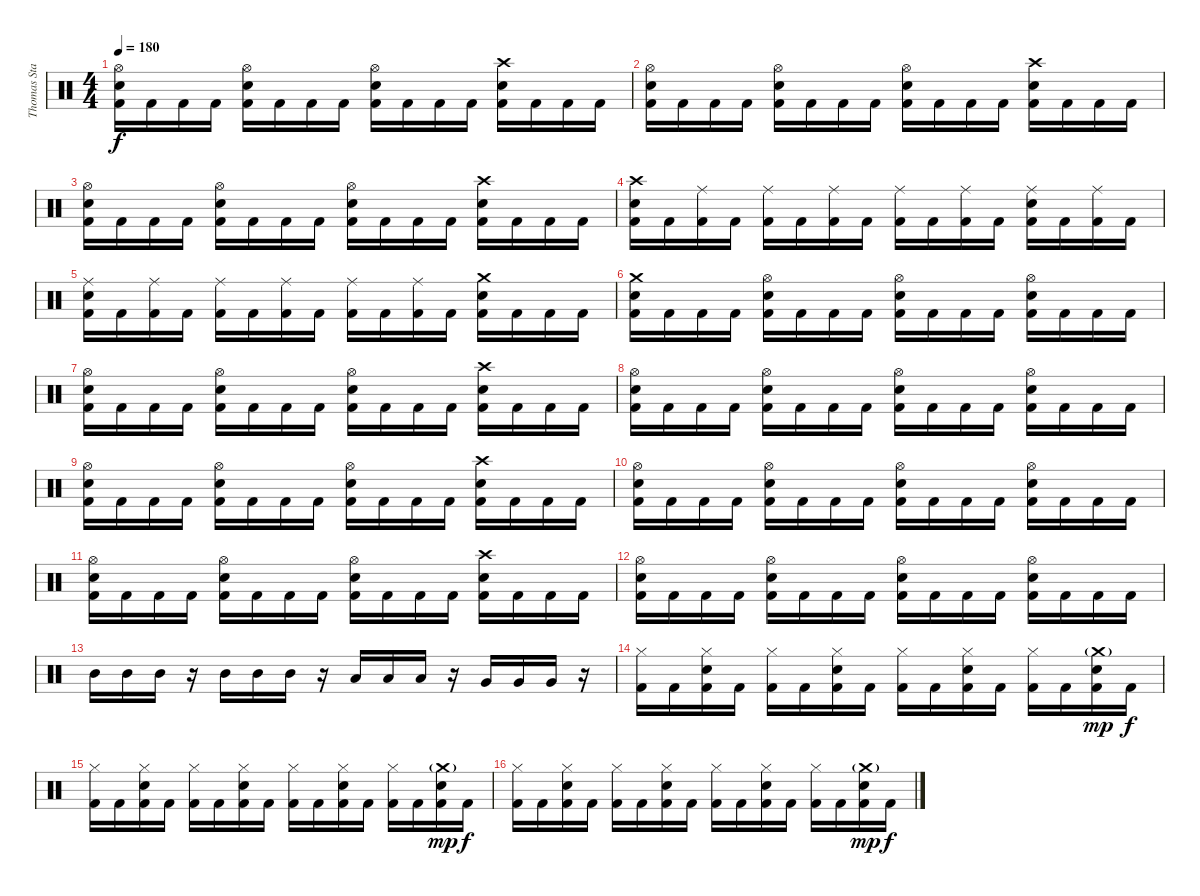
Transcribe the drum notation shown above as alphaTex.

\track ("Thomas Stauch" "Thomas Sta") {instrument percussion}
\staff {score}
\articulation defaults
\ts (4 4)
\tempo 180
\clef neutral
\ks c
("Hi-Hat (open)" "Electric Snare (hit)" "Kick (hit) 2").16{dy f} "Kick (hit) 2".16 "Kick (hit) 2".16 "Kick (hit) 2".16 ("Hi-Hat (open)" "Electric Snare (hit)" "Kick (hit) 2").16 "Kick (hit) 2".16 "Kick (hit) 2".16 "Kick (hit) 2".16 ("Hi-Hat (open)" "Electric Snare (hit)" "Kick (hit) 2").16 "Kick (hit) 2".16 "Kick (hit) 2".16 "Kick (hit) 2".16 ("Crash high (hit)" "Electric Snare (hit)" "Kick (hit) 2").16 "Kick (hit) 2".16 "Kick (hit) 2".16 "Kick (hit) 2".16 |
("Hi-Hat (open)" "Electric Snare (hit)" "Kick (hit) 2").16 "Kick (hit) 2".16 "Kick (hit) 2".16 "Kick (hit) 2".16 ("Hi-Hat (open)" "Electric Snare (hit)" "Kick (hit) 2").16 "Kick (hit) 2".16 "Kick (hit) 2".16 "Kick (hit) 2".16 ("Hi-Hat (open)" "Electric Snare (hit)" "Kick (hit) 2").16 "Kick (hit) 2".16 "Kick (hit) 2".16 "Kick (hit) 2".16 ("Crash high (hit)" "Electric Snare (hit)" "Kick (hit) 2").16 "Kick (hit) 2".16 "Kick (hit) 2".16 "Kick (hit) 2".16 |
("Hi-Hat (open)" "Electric Snare (hit)" "Kick (hit) 2").16 "Kick (hit) 2".16 "Kick (hit) 2".16 "Kick (hit) 2".16 ("Hi-Hat (open)" "Electric Snare (hit)" "Kick (hit) 2").16 "Kick (hit) 2".16 "Kick (hit) 2".16 "Kick (hit) 2".16 ("Hi-Hat (open)" "Electric Snare (hit)" "Kick (hit) 2").16 "Kick (hit) 2".16 "Kick (hit) 2".16 "Kick (hit) 2".16 ("Crash high (hit)" "Electric Snare (hit)" "Kick (hit) 2").16 "Kick (hit) 2".16 "Kick (hit) 2".16 "Kick (hit) 2".16 |
("Crash high (hit)" "Electric Snare (hit)" "Kick (hit) 2").16 "Kick (hit) 2".16 ("Ride (middle)" "Kick (hit) 2").16 "Kick (hit) 2".16 ("Ride (middle)" "Kick (hit) 2").16 "Kick (hit) 2".16 ("Ride (middle)" "Kick (hit) 2").16 "Kick (hit) 2".16 ("Ride (middle)" "Kick (hit) 2").16 "Kick (hit) 2".16 ("Ride (middle)" "Kick (hit) 2").16 "Kick (hit) 2".16 ("Ride (middle)" "Electric Snare (hit)" "Kick (hit) 2").16 "Kick (hit) 2".16 ("Ride (middle)" "Kick (hit) 2").16 "Kick (hit) 2".16 |
("Ride (middle)" "Electric Snare (hit)" "Kick (hit) 2").16 "Kick (hit) 2".16 ("Ride (middle)" "Kick (hit) 2").16 "Kick (hit) 2".16 ("Ride (middle)" "Kick (hit) 2").16 "Kick (hit) 2".16 ("Ride (middle)" "Kick (hit) 2").16 "Kick (hit) 2".16 ("Ride (middle)" "Kick (hit) 2").16 "Kick (hit) 2".16 ("Ride (middle)" "Kick (hit) 2").16 "Kick (hit) 2".16 ("Crash medium (hit)" "Electric Snare (hit)" "Kick (hit) 2").16 "Kick (hit) 2".16 "Kick (hit) 2".16 "Kick (hit) 2".16 |
("Crash medium (hit)" "Electric Snare (hit)" "Kick (hit) 2").16 "Kick (hit) 2".16 "Kick (hit) 2".16 "Kick (hit) 2".16 ("Hi-Hat (open)" "Electric Snare (hit)" "Kick (hit) 2").16 "Kick (hit) 2".16 "Kick (hit) 2".16 "Kick (hit) 2".16 ("Hi-Hat (open)" "Electric Snare (hit)" "Kick (hit) 2").16 "Kick (hit) 2".16 "Kick (hit) 2".16 "Kick (hit) 2".16 ("Hi-Hat (open)" "Electric Snare (hit)" "Kick (hit) 2").16 "Kick (hit) 2".16 "Kick (hit) 2".16 "Kick (hit) 2".16 |
("Hi-Hat (open)" "Electric Snare (hit)" "Kick (hit) 2").16 "Kick (hit) 2".16 "Kick (hit) 2".16 "Kick (hit) 2".16 ("Hi-Hat (open)" "Electric Snare (hit)" "Kick (hit) 2").16 "Kick (hit) 2".16 "Kick (hit) 2".16 "Kick (hit) 2".16 ("Hi-Hat (open)" "Electric Snare (hit)" "Kick (hit) 2").16 "Kick (hit) 2".16 "Kick (hit) 2".16 "Kick (hit) 2".16 ("Crash high (hit)" "Electric Snare (hit)" "Kick (hit) 2").16 "Kick (hit) 2".16 "Kick (hit) 2".16 "Kick (hit) 2".16 |
("Hi-Hat (open)" "Electric Snare (hit)" "Kick (hit) 2").16 "Kick (hit) 2".16 "Kick (hit) 2".16 "Kick (hit) 2".16 ("Hi-Hat (open)" "Electric Snare (hit)" "Kick (hit) 2").16 "Kick (hit) 2".16 "Kick (hit) 2".16 "Kick (hit) 2".16 ("Hi-Hat (open)" "Electric Snare (hit)" "Kick (hit) 2").16 "Kick (hit) 2".16 "Kick (hit) 2".16 "Kick (hit) 2".16 ("Hi-Hat (open)" "Electric Snare (hit)" "Kick (hit) 2").16 "Kick (hit) 2".16 "Kick (hit) 2".16 "Kick (hit) 2".16 |
("Hi-Hat (open)" "Electric Snare (hit)" "Kick (hit) 2").16 "Kick (hit) 2".16 "Kick (hit) 2".16 "Kick (hit) 2".16 ("Hi-Hat (open)" "Electric Snare (hit)" "Kick (hit) 2").16 "Kick (hit) 2".16 "Kick (hit) 2".16 "Kick (hit) 2".16 ("Hi-Hat (open)" "Electric Snare (hit)" "Kick (hit) 2").16 "Kick (hit) 2".16 "Kick (hit) 2".16 "Kick (hit) 2".16 ("Crash high (hit)" "Electric Snare (hit)" "Kick (hit) 2").16 "Kick (hit) 2".16 "Kick (hit) 2".16 "Kick (hit) 2".16 |
("Hi-Hat (open)" "Electric Snare (hit)" "Kick (hit) 2").16 "Kick (hit) 2".16 "Kick (hit) 2".16 "Kick (hit) 2".16 ("Hi-Hat (open)" "Electric Snare (hit)" "Kick (hit) 2").16 "Kick (hit) 2".16 "Kick (hit) 2".16 "Kick (hit) 2".16 ("Hi-Hat (open)" "Electric Snare (hit)" "Kick (hit) 2").16 "Kick (hit) 2".16 "Kick (hit) 2".16 "Kick (hit) 2".16 ("Hi-Hat (open)" "Electric Snare (hit)" "Kick (hit) 2").16 "Kick (hit) 2".16 "Kick (hit) 2".16 "Kick (hit) 2".16 |
("Hi-Hat (open)" "Electric Snare (hit)" "Kick (hit) 2").16 "Kick (hit) 2".16 "Kick (hit) 2".16 "Kick (hit) 2".16 ("Hi-Hat (open)" "Electric Snare (hit)" "Kick (hit) 2").16 "Kick (hit) 2".16 "Kick (hit) 2".16 "Kick (hit) 2".16 ("Hi-Hat (open)" "Electric Snare (hit)" "Kick (hit) 2").16 "Kick (hit) 2".16 "Kick (hit) 2".16 "Kick (hit) 2".16 ("Crash high (hit)" "Electric Snare (hit)" "Kick (hit) 2").16 "Kick (hit) 2".16 "Kick (hit) 2".16 "Kick (hit) 2".16 |
("Hi-Hat (open)" "Electric Snare (hit)" "Kick (hit) 2").16 "Kick (hit) 2".16 "Kick (hit) 2".16 "Kick (hit) 2".16 ("Hi-Hat (open)" "Electric Snare (hit)" "Kick (hit) 2").16 "Kick (hit) 2".16 "Kick (hit) 2".16 "Kick (hit) 2".16 ("Hi-Hat (open)" "Electric Snare (hit)" "Kick (hit) 2").16 "Kick (hit) 2".16 "Kick (hit) 2".16 "Kick (hit) 2".16 ("Hi-Hat (open)" "Electric Snare (hit)" "Kick (hit) 2").16 "Kick (hit) 2".16 "Kick (hit) 2".16 "Kick (hit) 2".16 |
"Mid Tom (hit)".16 "Mid Tom (hit)".16 "Mid Tom (hit)".16 r.16 "Mid Tom (hit)".16 "Mid Tom (hit)".16 "Mid Tom (hit)".16 r.16 "Low Tom (hit)".16 "Low Tom (hit)".16 "Low Tom (hit)".16 r.16 "Very Low Tom (hit)".16 "Very Low Tom (hit)".16 "Very Low Tom (hit)".16 r.16 |
("Hi-Hat (closed)" "Kick (hit) 2").16 "Kick (hit) 2".16 ("Hi-Hat (closed)" "Electric Snare (hit)" "Kick (hit) 2").16 "Kick (hit) 2".16 ("Hi-Hat (closed)" "Kick (hit) 2").16 "Kick (hit) 2".16 ("Hi-Hat (closed)" "Electric Snare (hit)" "Kick (hit) 2").16 "Kick (hit) 2".16 ("Hi-Hat (closed)" "Kick (hit) 2").16 "Kick (hit) 2".16 ("Hi-Hat (closed)" "Electric Snare (hit)" "Kick (hit) 2").16 "Kick (hit) 2".16 ("Hi-Hat (closed)" "Kick (hit) 2").16 "Kick (hit) 2".16 ("Crash medium (hit)"{g} "Electric Snare (hit)" "Kick (hit) 2").16{dy mp} "Kick (hit) 2".16{dy f} |
("Hi-Hat (closed)" "Kick (hit) 2").16 "Kick (hit) 2".16 ("Hi-Hat (closed)" "Electric Snare (hit)" "Kick (hit) 2").16 "Kick (hit) 2".16 ("Hi-Hat (closed)" "Kick (hit) 2").16 "Kick (hit) 2".16 ("Hi-Hat (closed)" "Electric Snare (hit)" "Kick (hit) 2").16 "Kick (hit) 2".16 ("Hi-Hat (closed)" "Kick (hit) 2").16 "Kick (hit) 2".16 ("Hi-Hat (closed)" "Electric Snare (hit)" "Kick (hit) 2").16 "Kick (hit) 2".16 ("Hi-Hat (closed)" "Kick (hit) 2").16 "Kick (hit) 2".16 ("Crash medium (hit)"{g} "Electric Snare (hit)" "Kick (hit) 2").16{dy mp} "Kick (hit) 2".16{dy f} |
("Hi-Hat (closed)" "Kick (hit) 2").16 "Kick (hit) 2".16 ("Hi-Hat (closed)" "Electric Snare (hit)" "Kick (hit) 2").16 "Kick (hit) 2".16 ("Hi-Hat (closed)" "Kick (hit) 2").16 "Kick (hit) 2".16 ("Hi-Hat (closed)" "Electric Snare (hit)" "Kick (hit) 2").16 "Kick (hit) 2".16 ("Hi-Hat (closed)" "Kick (hit) 2").16 "Kick (hit) 2".16 ("Hi-Hat (closed)" "Electric Snare (hit)" "Kick (hit) 2").16 "Kick (hit) 2".16 ("Hi-Hat (closed)" "Kick (hit) 2").16 "Kick (hit) 2".16 ("Crash medium (hit)"{g} "Electric Snare (hit)" "Kick (hit) 2").16{dy mp} "Kick (hit) 2".16{dy f}
